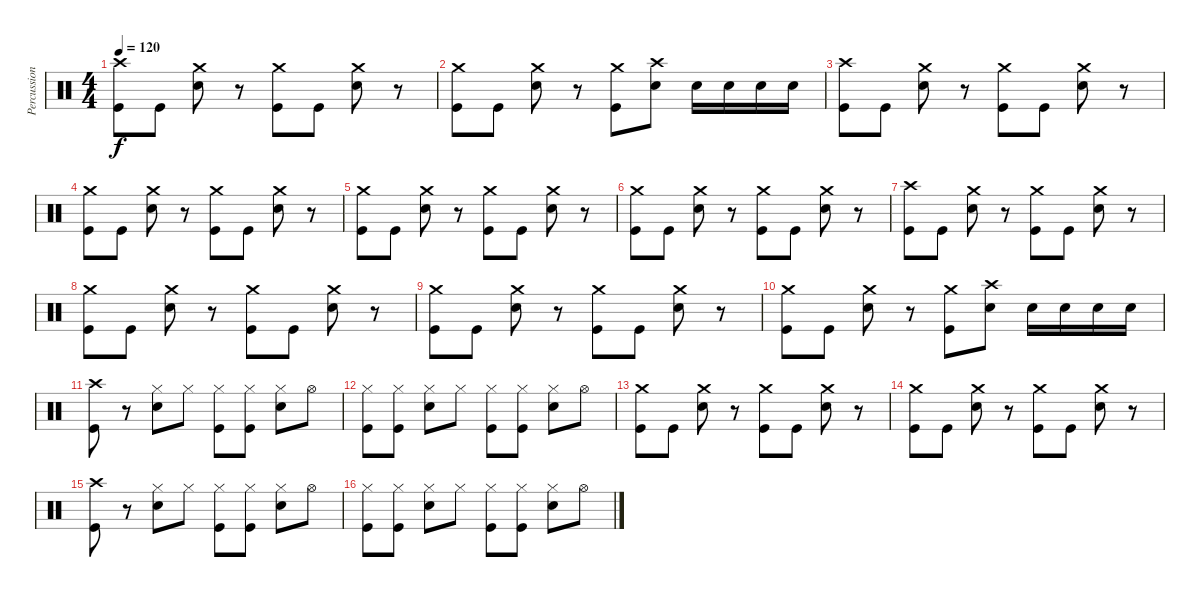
\track ("Percussion" "Percussion") {instrument percussion}
\staff {score}
\articulation defaults
\ts (4 4)
\tempo 120
\clef neutral
\ks c
("Crash high (hit)" "Kick (hit)").8{dy f} "Kick (hit)".8 ("Crash medium (hit)" "Electric Snare (hit)").8 r.8 ("Crash medium (hit)" "Kick (hit)").8 "Kick (hit)".8 ("Crash medium (hit)" "Electric Snare (hit)").8 r.8 |
("Crash medium (hit)" "Kick (hit)").8 "Kick (hit)".8 ("Crash medium (hit)" "Electric Snare (hit)").8 r.8 ("Crash medium (hit)" "Kick (hit)").8 ("Crash high (hit)" "Electric Snare (hit)").8 "Electric Snare (hit)".16 "Electric Snare (hit)".16 "Electric Snare (hit)".16 "Electric Snare (hit)".16 |
("Crash high (hit)" "Kick (hit)").8 "Kick (hit)".8 ("Crash medium (hit)" "Electric Snare (hit)").8 r.8 ("Crash medium (hit)" "Kick (hit)").8 "Kick (hit)".8 ("Crash medium (hit)" "Electric Snare (hit)").8 r.8 |
("Crash medium (hit)" "Kick (hit)").8 "Kick (hit)".8 ("Crash medium (hit)" "Electric Snare (hit)").8 r.8 ("Crash medium (hit)" "Kick (hit)").8 "Kick (hit)".8 ("Crash medium (hit)" "Electric Snare (hit)").8 r.8 |
("Crash medium (hit)" "Kick (hit)").8 "Kick (hit)".8 ("Crash medium (hit)" "Electric Snare (hit)").8 r.8 ("Crash medium (hit)" "Kick (hit)").8 "Kick (hit)".8 ("Crash medium (hit)" "Electric Snare (hit)").8 r.8 |
("Crash medium (hit)" "Kick (hit)").8 "Kick (hit)".8 ("Crash medium (hit)" "Electric Snare (hit)").8 r.8 ("Crash medium (hit)" "Kick (hit)").8 "Kick (hit)".8 ("Crash medium (hit)" "Electric Snare (hit)").8 r.8 |
("Crash high (hit)" "Kick (hit)").8 "Kick (hit)".8 ("Crash medium (hit)" "Electric Snare (hit)").8 r.8 ("Crash medium (hit)" "Kick (hit)").8 "Kick (hit)".8 ("Crash medium (hit)" "Electric Snare (hit)").8 r.8 |
("Crash medium (hit)" "Kick (hit)").8 "Kick (hit)".8 ("Crash medium (hit)" "Electric Snare (hit)").8 r.8 ("Crash medium (hit)" "Kick (hit)").8 "Kick (hit)".8 ("Crash medium (hit)" "Electric Snare (hit)").8 r.8 |
("Crash medium (hit)" "Kick (hit)").8 "Kick (hit)".8 ("Crash medium (hit)" "Electric Snare (hit)").8 r.8 ("Crash medium (hit)" "Kick (hit)").8 "Kick (hit)".8 ("Crash medium (hit)" "Electric Snare (hit)").8 r.8 |
("Crash medium (hit)" "Kick (hit)").8 "Kick (hit)".8 ("Crash medium (hit)" "Electric Snare (hit)").8 r.8 ("Crash medium (hit)" "Kick (hit)").8 ("Crash high (hit)" "Electric Snare (hit)").8 "Electric Snare (hit)".16 "Electric Snare (hit)".16 "Electric Snare (hit)".16 "Electric Snare (hit)".16 |
("Crash high (hit)" "Kick (hit)").8 r.8 ("Hi-Hat (closed)" "Electric Snare (hit)").8 "Hi-Hat (closed)".8 ("Hi-Hat (closed)" "Kick (hit)").8 ("Hi-Hat (closed)" "Kick (hit)").8 ("Hi-Hat (closed)" "Electric Snare (hit)").8 "Hi-Hat (open)".8 |
("Hi-Hat (closed)" "Kick (hit)").8 ("Hi-Hat (closed)" "Kick (hit)").8 ("Hi-Hat (closed)" "Electric Snare (hit)").8 "Hi-Hat (closed)".8 ("Hi-Hat (closed)" "Kick (hit)").8 ("Hi-Hat (closed)" "Kick (hit)").8 ("Hi-Hat (closed)" "Electric Snare (hit)").8 "Hi-Hat (open)".8 |
("Crash medium (hit)" "Kick (hit)").8 "Kick (hit)".8 ("Crash medium (hit)" "Electric Snare (hit)").8 r.8 ("Crash medium (hit)" "Kick (hit)").8 "Kick (hit)".8 ("Crash medium (hit)" "Electric Snare (hit)").8 r.8 |
("Crash medium (hit)" "Kick (hit)").8 "Kick (hit)".8 ("Crash medium (hit)" "Electric Snare (hit)").8 r.8 ("Crash medium (hit)" "Kick (hit)").8 "Kick (hit)".8 ("Crash medium (hit)" "Electric Snare (hit)").8 r.8 |
("Crash high (hit)" "Kick (hit)").8 r.8 ("Hi-Hat (closed)" "Electric Snare (hit)").8 "Hi-Hat (closed)".8 ("Hi-Hat (closed)" "Kick (hit)").8 ("Hi-Hat (closed)" "Kick (hit)").8 ("Hi-Hat (closed)" "Electric Snare (hit)").8 "Hi-Hat (open)".8 |
("Hi-Hat (closed)" "Kick (hit)").8 ("Hi-Hat (closed)" "Kick (hit)").8 ("Hi-Hat (closed)" "Electric Snare (hit)").8 "Hi-Hat (closed)".8 ("Hi-Hat (closed)" "Kick (hit)").8 ("Hi-Hat (closed)" "Kick (hit)").8 ("Hi-Hat (closed)" "Electric Snare (hit)").8 "Hi-Hat (open)".8
